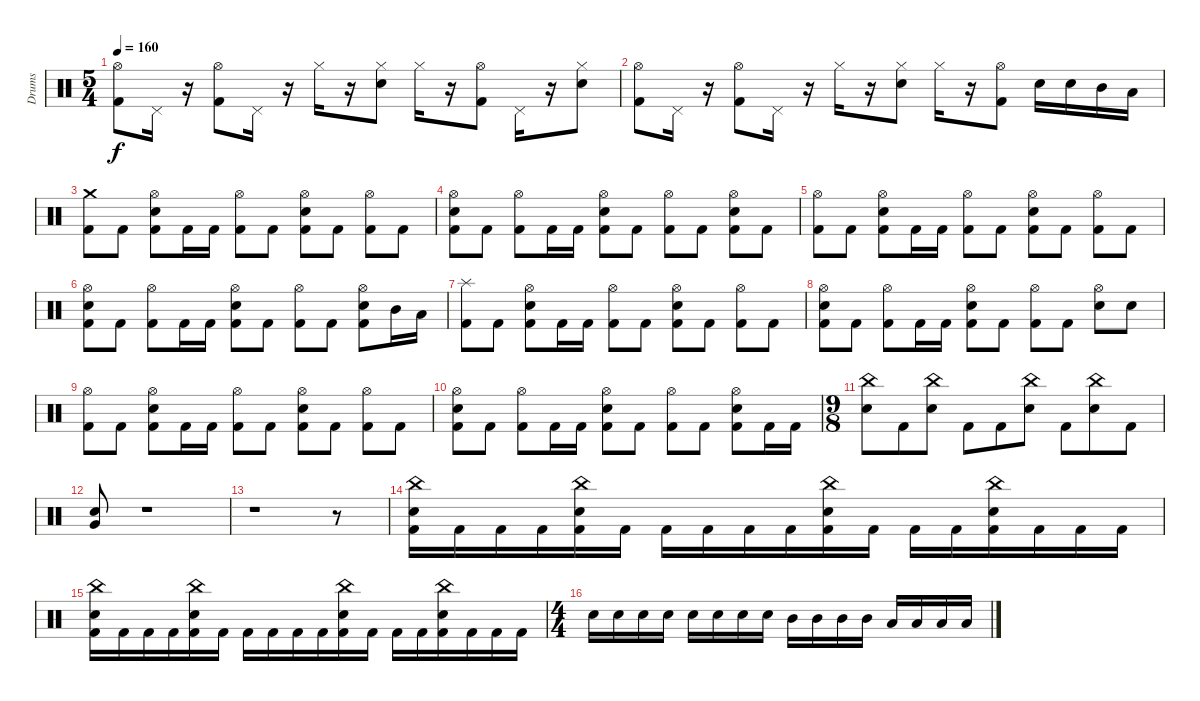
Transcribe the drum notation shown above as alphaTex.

\track ("Drums" "Drums") {instrument percussion}
\staff {score}
\articulation defaults
\ts (5 4)
\tempo 160
\clef neutral
\ks c
("Hi-Hat (open)" "Kick (hit) 2").8{dy f} "Pedal Hi-Hat (hit)".16 r.16 ("Hi-Hat (open)" "Kick (hit) 2").8 "Pedal Hi-Hat (hit)".16 r.16 "Hi-Hat (closed)".16 r.16 ("Hi-Hat (closed)" "Electric Snare (hit)").8 "Hi-Hat (closed)".16 r.16 ("Hi-Hat (open)" "Kick (hit) 2").8 "Pedal Hi-Hat (hit)".16 r.16 ("Hi-Hat (closed)" "Electric Snare (hit)").8 |
("Hi-Hat (open)" "Kick (hit) 2").8 "Pedal Hi-Hat (hit)".16 r.16 ("Hi-Hat (open)" "Kick (hit) 2").8 "Pedal Hi-Hat (hit)".16 r.16 "Hi-Hat (closed)".16 r.16 ("Hi-Hat (closed)" "Electric Snare (hit)").8 "Hi-Hat (closed)".16 r.16 ("Hi-Hat (open)" "Kick (hit) 2").8 "Electric Snare (hit)".16 "Electric Snare (hit)".16 "Mid Tom (hit)".16 "Low Tom (hit)".16 |
("Crash medium (hit)" "Kick (hit) 2").8 "Kick (hit) 2".8 ("Hi-Hat (open)" "Electric Snare (hit)" "Kick (hit) 2").8 "Kick (hit) 2".16 "Kick (hit) 2".16 ("Hi-Hat (open)" "Kick (hit) 2").8 "Kick (hit) 2".8 ("Kick (hit) 2" "Hi-Hat (open)" "Electric Snare (hit)").8 "Kick (hit) 2".8 ("Kick (hit) 2" "Hi-Hat (open)").8 "Kick (hit) 2".8 |
("Hi-Hat (open)" "Kick (hit) 2" "Electric Snare (hit)").8 "Kick (hit) 2".8 ("Hi-Hat (open)" "Kick (hit) 2").8 "Kick (hit) 2".16 "Kick (hit) 2".16 ("Hi-Hat (open)" "Kick (hit) 2" "Electric Snare (hit)").8 "Kick (hit) 2".8 ("Hi-Hat (open)" "Kick (hit) 2").8 "Kick (hit) 2".8 ("Electric Snare (hit)" "Hi-Hat (open)" "Kick (hit) 2").8 "Kick (hit) 2".8 |
("Hi-Hat (open)" "Kick (hit) 2").8 "Kick (hit) 2".8 ("Hi-Hat (open)" "Electric Snare (hit)" "Kick (hit) 2").8 "Kick (hit) 2".16 "Kick (hit) 2".16 ("Hi-Hat (open)" "Kick (hit) 2").8 "Kick (hit) 2".8 ("Kick (hit) 2" "Hi-Hat (open)" "Electric Snare (hit)").8 "Kick (hit) 2".8 ("Kick (hit) 2" "Hi-Hat (open)").8 "Kick (hit) 2".8 |
("Hi-Hat (open)" "Kick (hit) 2" "Electric Snare (hit)").8 "Kick (hit) 2".8 ("Hi-Hat (open)" "Kick (hit) 2").8 "Kick (hit) 2".16 "Kick (hit) 2".16 ("Hi-Hat (open)" "Kick (hit) 2" "Electric Snare (hit)").8 "Kick (hit) 2".8 ("Hi-Hat (open)" "Kick (hit) 2").8 "Kick (hit) 2".8 ("Electric Snare (hit)" "Hi-Hat (open)" "Kick (hit) 2").8 "Mid Tom (hit)".16 "Low Tom (hit)".16 |
("Splash (hit)" "Kick (hit) 2").8 "Kick (hit) 2".8 ("Hi-Hat (open)" "Electric Snare (hit)" "Kick (hit) 2").8 "Kick (hit) 2".16 "Kick (hit) 2".16 ("Hi-Hat (open)" "Kick (hit) 2").8 "Kick (hit) 2".8 ("Kick (hit) 2" "Hi-Hat (open)" "Electric Snare (hit)").8 "Kick (hit) 2".8 ("Kick (hit) 2" "Hi-Hat (open)").8 "Kick (hit) 2".8 |
("Hi-Hat (open)" "Kick (hit) 2" "Electric Snare (hit)").8 "Kick (hit) 2".8 ("Hi-Hat (open)" "Kick (hit) 2").8 "Kick (hit) 2".16 "Kick (hit) 2".16 ("Hi-Hat (open)" "Kick (hit) 2" "Electric Snare (hit)").8 "Kick (hit) 2".8 ("Hi-Hat (open)" "Kick (hit) 2").8 "Kick (hit) 2".8 ("Electric Snare (hit)" "Hi-Hat (open)").8 "Electric Snare (hit)".8 |
("Hi-Hat (open)" "Kick (hit) 2").8 "Kick (hit) 2".8 ("Hi-Hat (open)" "Electric Snare (hit)" "Kick (hit) 2").8 "Kick (hit) 2".16 "Kick (hit) 2".16 ("Hi-Hat (open)" "Kick (hit) 2").8 "Kick (hit) 2".8 ("Kick (hit) 2" "Hi-Hat (open)" "Electric Snare (hit)").8 "Kick (hit) 2".8 ("Kick (hit) 2" "Hi-Hat (open)").8 "Kick (hit) 2".8 |
("Hi-Hat (open)" "Kick (hit) 2" "Electric Snare (hit)").8 "Kick (hit) 2".8 ("Hi-Hat (open)" "Kick (hit) 2").8 "Kick (hit) 2".16 "Kick (hit) 2".16 ("Hi-Hat (open)" "Kick (hit) 2" "Electric Snare (hit)").8 "Kick (hit) 2".8 ("Hi-Hat (open)" "Kick (hit) 2").8 "Kick (hit) 2".8 ("Electric Snare (hit)" "Hi-Hat (open)" "Kick (hit) 2").8 "Kick (hit) 2".16 "Kick (hit) 2".16 |
\ts (9 8)
("China (hit)" "Electric Snare (hit)").8 "Kick (hit) 2".8 ("China (hit)" "Electric Snare (hit)").8 "Kick (hit) 2".8 "Kick (hit) 2".8 ("China (hit)" "Electric Snare (hit)").8 "Kick (hit) 2".8 ("China (hit)" "Electric Snare (hit)").8 "Kick (hit) 2".8 |
("Very Low Tom (hit)" "Electric Snare (hit)").8 r.1 |
r.1 r.8 |
("Electric Snare (hit)" "China (hit)" "Kick (hit) 2").16 "Kick (hit) 2".16 "Kick (hit) 2".16 "Kick (hit) 2".16 ("Electric Snare (hit)" "China (hit)" "Kick (hit) 2").16 "Kick (hit) 2".16 "Kick (hit) 2".16 "Kick (hit) 2".16 "Kick (hit) 2".16 "Kick (hit) 2".16 ("Electric Snare (hit)" "China (hit)" "Kick (hit) 2").16 "Kick (hit) 2".16 "Kick (hit) 2".16 "Kick (hit) 2".16 ("Electric Snare (hit)" "China (hit)" "Kick (hit) 2").16 "Kick (hit) 2".16 "Kick (hit) 2".16 "Kick (hit) 2".16 |
("Electric Snare (hit)" "China (hit)" "Kick (hit) 2").16 "Kick (hit) 2".16 "Kick (hit) 2".16 "Kick (hit) 2".16 ("Electric Snare (hit)" "China (hit)" "Kick (hit) 2").16 "Kick (hit) 2".16 "Kick (hit) 2".16 "Kick (hit) 2".16 "Kick (hit) 2".16 "Kick (hit) 2".16 ("Electric Snare (hit)" "China (hit)" "Kick (hit) 2").16 "Kick (hit) 2".16 "Kick (hit) 2".16 "Kick (hit) 2".16 ("Electric Snare (hit)" "China (hit)" "Kick (hit) 2").16 "Kick (hit) 2".16 "Kick (hit) 2".16 "Kick (hit) 2".16 |
\ts (4 4)
"Electric Snare (hit)".16 "Electric Snare (hit)".16 "Electric Snare (hit)".16 "Electric Snare (hit)".16 "Electric Snare (hit)".16 "Electric Snare (hit)".16 "Electric Snare (hit)".16 "Electric Snare (hit)".16 "Mid Tom (hit)".16 "Mid Tom (hit)".16 "Mid Tom (hit)".16 "Mid Tom (hit)".16 "Low Tom (hit)".16 "Low Tom (hit)".16 "Low Tom (hit)".16 "Low Tom (hit)".16
